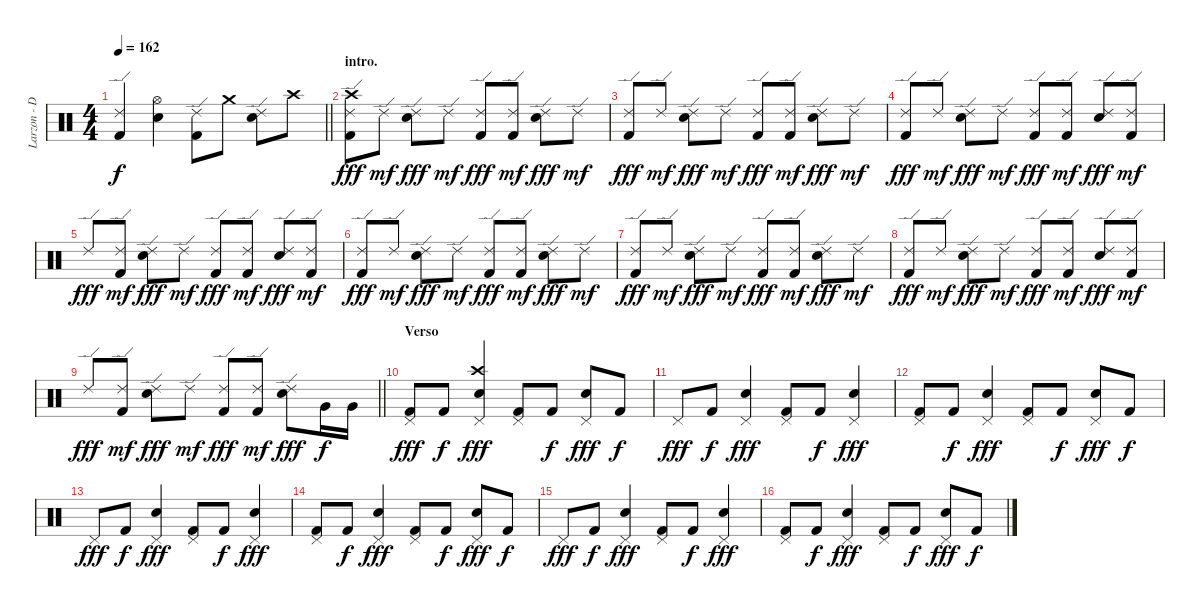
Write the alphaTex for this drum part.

\track ("Larzon - Drums" "Larzon - D") {instrument percussion}
\staff {score}
\articulation defaults
\ts (4 4)
\tempo 162
\clef neutral
\barLineRight lightlight
\ks c
("Kick (hit) 2" "Ride (edge) 2").4{dy f} ("Electric Snare (hit)" "Hi-Hat (open)").4 ("Kick (hit) 2" "Ride (edge) 2").8 "Crash medium (hit)".8 ("Electric Snare (hit)" "Ride (edge) 2").8 "Crash high (hit)".8 |
\section ("" "intro.")
("Kick (hit) 2" "Crash high (hit)" "Ride (edge) 2").8{dy fff} "Ride (edge) 2".8{dy mf} ("Electric Snare (hit)" "Ride (edge) 2").8{dy fff} "Ride (edge) 2".8{dy mf} ("Kick (hit) 2" "Ride (edge) 2").8{dy fff} ("Kick (hit) 2" "Ride (edge) 2").8{dy mf} ("Electric Snare (hit)" "Ride (edge) 2").8{dy fff} "Ride (edge) 2".8{dy mf} |
("Kick (hit) 2" "Ride (edge) 2").8{dy fff} "Ride (edge) 2".8{dy mf} ("Electric Snare (hit)" "Ride (edge) 2").8{dy fff} "Ride (edge) 2".8{dy mf} ("Kick (hit) 2" "Ride (edge) 2").8{dy fff} ("Kick (hit) 2" "Ride (edge) 2").8{dy mf} ("Electric Snare (hit)" "Ride (edge) 2").8{dy fff} "Ride (edge) 2".8{dy mf} |
("Kick (hit) 2" "Ride (edge) 2").8{dy fff} "Ride (edge) 2".8{dy mf} ("Electric Snare (hit)" "Ride (edge) 2").8{dy fff} "Ride (edge) 2".8{dy mf} ("Kick (hit) 2" "Ride (edge) 2").8{dy fff} ("Kick (hit) 2" "Ride (edge) 2").8{dy mf} ("Electric Snare (hit)" "Ride (edge) 2").8{dy fff} ("Kick (hit) 2" "Ride (edge) 2").8{dy mf} |
"Ride (edge) 2".8{dy fff} ("Kick (hit) 2" "Ride (edge) 2").8{dy mf} ("Electric Snare (hit)" "Ride (edge) 2").8{dy fff} "Ride (edge) 2".8{dy mf} ("Kick (hit) 2" "Ride (edge) 2").8{dy fff} ("Kick (hit) 2" "Ride (edge) 2").8{dy mf} ("Electric Snare (hit)" "Ride (edge) 2").8{dy fff} ("Kick (hit) 2" "Ride (edge) 2").8{dy mf} |
("Kick (hit) 2" "Ride (edge) 2").8{dy fff} "Ride (edge) 2".8{dy mf} ("Electric Snare (hit)" "Ride (edge) 2").8{dy fff} "Ride (edge) 2".8{dy mf} ("Kick (hit) 2" "Ride (edge) 2").8{dy fff} ("Kick (hit) 2" "Ride (edge) 2").8{dy mf} ("Electric Snare (hit)" "Ride (edge) 2").8{dy fff} "Ride (edge) 2".8{dy mf} |
("Kick (hit) 2" "Ride (edge) 2").8{dy fff} "Ride (edge) 2".8{dy mf} ("Electric Snare (hit)" "Ride (edge) 2").8{dy fff} "Ride (edge) 2".8{dy mf} ("Kick (hit) 2" "Ride (edge) 2").8{dy fff} ("Kick (hit) 2" "Ride (edge) 2").8{dy mf} ("Electric Snare (hit)" "Ride (edge) 2").8{dy fff} "Ride (edge) 2".8{dy mf} |
("Kick (hit) 2" "Ride (edge) 2").8{dy fff} "Ride (edge) 2".8{dy mf} ("Electric Snare (hit)" "Ride (edge) 2").8{dy fff} "Ride (edge) 2".8{dy mf} ("Kick (hit) 2" "Ride (edge) 2").8{dy fff} ("Kick (hit) 2" "Ride (edge) 2").8{dy mf} ("Electric Snare (hit)" "Ride (edge) 2").8{dy fff} ("Kick (hit) 2" "Ride (edge) 2").8{dy mf} |
\barLineRight lightlight "Ride (edge) 2".8{dy fff}
("Kick (hit) 2" "Ride (edge) 2").8{dy mf} ("Electric Snare (hit)" "Ride (edge) 2").8{dy fff} "Ride (edge) 2".8{dy mf} ("Kick (hit) 2" "Ride (edge) 2").8{dy fff} ("Kick (hit) 2" "Ride (edge) 2").8{dy mf} ("Electric Snare (hit)" "Ride (edge) 2").8{dy fff} "Very Low Tom (hit)".16{dy f} "Very Low Tom (hit)".16 |
\section ("" "Verso")
("Kick (hit) 2" "Pedal Hi-Hat (hit)").8{dy fff} "Kick (hit) 2".8{dy f} ("Electric Snare (hit)" "Crash high (hit)" "Pedal Hi-Hat (hit)").4{dy fff} ("Kick (hit) 2" "Pedal Hi-Hat (hit)").8 "Kick (hit) 2".8{dy f} ("Electric Snare (hit)" "Pedal Hi-Hat (hit)").8{dy fff} "Kick (hit) 2".8{dy f} |
"Pedal Hi-Hat (hit)".8{dy fff} "Kick (hit) 2".8{dy f} ("Electric Snare (hit)" "Pedal Hi-Hat (hit)").4{dy fff} ("Kick (hit) 2" "Pedal Hi-Hat (hit)").8 "Kick (hit) 2".8{dy f} ("Electric Snare (hit)" "Pedal Hi-Hat (hit)").4{dy fff} |
("Kick (hit) 2" "Pedal Hi-Hat (hit)").8 "Kick (hit) 2".8{dy f} ("Electric Snare (hit)" "Pedal Hi-Hat (hit)").4{dy fff} ("Kick (hit) 2" "Pedal Hi-Hat (hit)").8 "Kick (hit) 2".8{dy f} ("Electric Snare (hit)" "Pedal Hi-Hat (hit)").8{dy fff} "Kick (hit) 2".8{dy f} |
"Pedal Hi-Hat (hit)".8{dy fff} "Kick (hit) 2".8{dy f} ("Electric Snare (hit)" "Pedal Hi-Hat (hit)").4{dy fff} ("Kick (hit) 2" "Pedal Hi-Hat (hit)").8 "Kick (hit) 2".8{dy f} ("Electric Snare (hit)" "Pedal Hi-Hat (hit)").4{dy fff} |
("Kick (hit) 2" "Pedal Hi-Hat (hit)").8 "Kick (hit) 2".8{dy f} ("Electric Snare (hit)" "Pedal Hi-Hat (hit)").4{dy fff} ("Kick (hit) 2" "Pedal Hi-Hat (hit)").8 "Kick (hit) 2".8{dy f} ("Electric Snare (hit)" "Pedal Hi-Hat (hit)").8{dy fff} "Kick (hit) 2".8{dy f} |
"Pedal Hi-Hat (hit)".8{dy fff} "Kick (hit) 2".8{dy f} ("Electric Snare (hit)" "Pedal Hi-Hat (hit)").4{dy fff} ("Kick (hit) 2" "Pedal Hi-Hat (hit)").8 "Kick (hit) 2".8{dy f} ("Electric Snare (hit)" "Pedal Hi-Hat (hit)").4{dy fff} |
("Kick (hit) 2" "Pedal Hi-Hat (hit)").8 "Kick (hit) 2".8{dy f} ("Electric Snare (hit)" "Pedal Hi-Hat (hit)").4{dy fff} ("Kick (hit) 2" "Pedal Hi-Hat (hit)").8 "Kick (hit) 2".8{dy f} ("Electric Snare (hit)" "Pedal Hi-Hat (hit)").8{dy fff} "Kick (hit) 2".8{dy f}
